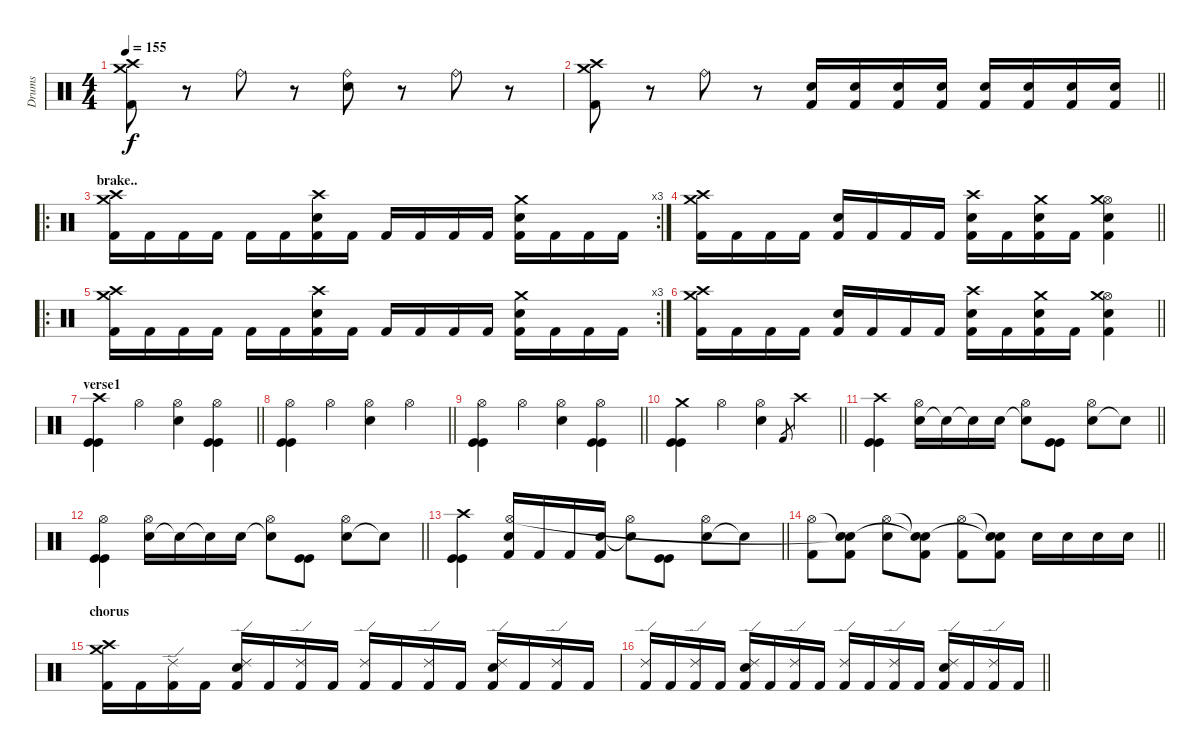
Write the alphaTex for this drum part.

\track ("Drums" "Drums") {instrument percussion}
\staff {score}
\articulation defaults
\ts (4 4)
\tempo 155
\clef neutral
\ks c
("Crash medium (hit)" "Crash high (hit)" "Kick (hit) 2").8{dy f} r.8 "Ride (bell)".8 r.8 ("Ride (bell)" "Electric Snare (hit)").8 r.8 "Ride (bell)".8 r.8 |
\barLineRight lightlight
("Crash medium (hit)" "Crash high (hit)" "Kick (hit) 2").8 r.8 "Ride (bell)".8 r.8 ("Electric Snare (hit)" "Kick (hit) 2").16 ("Electric Snare (hit)" "Kick (hit) 2").16 ("Electric Snare (hit)" "Kick (hit) 2").16 ("Electric Snare (hit)" "Kick (hit) 2").16 ("Electric Snare (hit)" "Kick (hit) 2").16 ("Electric Snare (hit)" "Kick (hit) 2").16 ("Electric Snare (hit)" "Kick (hit) 2").16 ("Electric Snare (hit)" "Kick (hit) 2").16 |
\ro
\rc 3
\section ("" "brake..")
("Crash high (hit)" "Crash medium (hit)" "Kick (hit) 2").16 "Kick (hit) 2".16 "Kick (hit) 2".16 "Kick (hit) 2".16 "Kick (hit) 2".16 "Kick (hit) 2".16 ("Crash high (hit)" "Electric Snare (hit)" "Kick (hit) 2").16 "Kick (hit) 2".16 "Kick (hit) 2".16 "Kick (hit) 2".16 "Kick (hit) 2".16 "Kick (hit) 2".16 ("Crash medium (hit)" "Electric Snare (hit)" "Kick (hit) 2").16 "Kick (hit) 2".16 "Kick (hit) 2".16 "Kick (hit) 2".16 |
\barLineRight lightlight
("Crash high (hit)" "Crash medium (hit)" "Kick (hit) 2").16 "Kick (hit) 2".16 "Kick (hit) 2".16 "Kick (hit) 2".16 ("Electric Snare (hit)" "Kick (hit) 2").16 "Kick (hit) 2".16 "Kick (hit) 2".16 "Kick (hit) 2".16 ("Crash high (hit)" "Electric Snare (hit)" "Kick (hit) 2").16 "Kick (hit) 2".16 ("Electric Snare (hit)" "Crash medium (hit)" "Kick (hit) 2").16 "Kick (hit) 2".16 ("Hi-Hat (open)" "Crash medium (hit)" "Electric Snare (hit)" "Kick (hit) 2").4 |
\ro
\rc 3
("Crash high (hit)" "Crash medium (hit)" "Kick (hit) 2").16 "Kick (hit) 2".16 "Kick (hit) 2".16 "Kick (hit) 2".16 "Kick (hit) 2".16 "Kick (hit) 2".16 ("Crash high (hit)" "Electric Snare (hit)" "Kick (hit) 2").16 "Kick (hit) 2".16 "Kick (hit) 2".16 "Kick (hit) 2".16 "Kick (hit) 2".16 "Kick (hit) 2".16 ("Crash medium (hit)" "Electric Snare (hit)" "Kick (hit) 2").16 "Kick (hit) 2".16 "Kick (hit) 2".16 "Kick (hit) 2".16 |
\barLineRight lightlight
("Crash high (hit)" "Crash medium (hit)" "Kick (hit) 2").16 "Kick (hit) 2".16 "Kick (hit) 2".16 "Kick (hit) 2".16 ("Electric Snare (hit)" "Kick (hit) 2").16 "Kick (hit) 2".16 "Kick (hit) 2".16 "Kick (hit) 2".16 ("Crash high (hit)" "Electric Snare (hit)" "Kick (hit) 2").16 "Kick (hit) 2".16 ("Electric Snare (hit)" "Crash medium (hit)" "Kick (hit) 2").16 "Kick (hit) 2".16 ("Hi-Hat (open)" "Crash medium (hit)" "Electric Snare (hit)" "Kick (hit) 2").4 |
\section ("" "verse1")
\barLineRight lightlight
("Crash high (hit)" "Kick (hit)" "Kick (hit)").4 "Hi-Hat (open)".4 ("Hi-Hat (open)" "Snare (hit) 2").4 ("Hi-Hat (open)" "Kick (hit)" "Kick (hit)").4 |
\barLineRight lightlight
("Hi-Hat (open)" "Kick (hit)" "Kick (hit)").4 "Hi-Hat (open)".4 ("Hi-Hat (open)" "Snare (hit) 2").4 "Hi-Hat (open)".4 |
\barLineRight lightlight
("Hi-Hat (open)" "Kick (hit)" "Kick (hit)").4 "Hi-Hat (open)".4 ("Hi-Hat (open)" "Snare (hit) 2").4 ("Hi-Hat (open)" "Kick (hit)" "Kick (hit)").4 |
\barLineRight lightlight
("Crash medium (hit)" "Kick (hit)" "Kick (hit)").4 "Hi-Hat (open)".4 ("Hi-Hat (open)" "Snare (hit) 2").4 "Kick (hit) 2".8{gr} "Crash high (hit)".4 |
\barLineRight lightlight
("Kick (hit)" "Kick (hit)" "Crash high (hit)").4 ("Snare (hit) 2" "Hi-Hat (open)").16 "Snare (hit)"{t}.16 "Snare (hit)"{t}.16 "Snare (hit) 2".16 ("Snare (hit)"{t} "Hi-Hat (open)").8 ("Kick (hit)" "Kick (hit)").8 ("Snare (hit) 2" "Hi-Hat (open)").8 "Snare (hit)"{t}.8 |
\barLineRight lightlight
("Kick (hit)" "Kick (hit)" "Hi-Hat (open)").4 ("Snare (hit) 2" "Hi-Hat (open)").16 "Snare (hit)"{t}.16 "Snare (hit)"{t}.16 "Snare (hit) 2".16 ("Snare (hit)"{t} "Hi-Hat (open)").8 ("Kick (hit)" "Kick (hit)").8 ("Snare (hit) 2" "Hi-Hat (open)").8 "Snare (hit)"{t}.8 |
\barLineRight lightlight
("Kick (hit)" "Kick (hit)" "Crash high (hit)").4 ("Snare (hit) 2" "Kick (hit) 2" "Hi-Hat (open)").16 "Kick (hit) 2".16 "Kick (hit) 2".16 ("Snare (hit) 2" "Kick (hit) 2").16 ("Snare (hit)"{t} "Hi-Hat (open)").8 ("Kick (hit)" "Kick (hit)").8 ("Snare (hit) 2" "Hi-Hat (open)").8 "Snare (hit)"{t}.8 |
\barLineRight lightlight
("Hi-Hat (open)" "Kick (hit) 2").8 ("Snare (hit)"{t} "Kick (hit) 2" "Snare (hit)"{t}).8 ("Hi-Hat (open)" "Snare (hit) 2").8 ("Snare (hit)"{t} "Kick (hit) 2" "Snare (hit)"{t}).8 ("Hi-Hat (open)" "Kick (hit) 2").8 ("Snare (hit)"{t} "Kick (hit) 2" "Snare (hit)"{t}).8 "Electric Snare (hit)".16 "Electric Snare (hit)".16 "Electric Snare (hit)".16 "Electric Snare (hit)".16 |
\section ("" "chorus")
("Crash high (hit)" "Crash medium (hit)" "Kick (hit) 2").16 "Kick (hit) 2".16 ("Ride (edge) 2" "Kick (hit) 2").16 "Kick (hit) 2".16 ("Ride (edge) 2" "Electric Snare (hit)" "Kick (hit) 2").16 "Kick (hit) 2".16 ("Ride (edge) 2" "Kick (hit) 2").16 "Kick (hit) 2".16 ("Ride (edge) 2" "Kick (hit) 2").16 "Kick (hit) 2".16 ("Ride (edge) 2" "Kick (hit) 2").16 "Kick (hit) 2".16 ("Ride (edge) 2" "Electric Snare (hit)" "Kick (hit) 2").16 "Kick (hit) 2".16 ("Ride (edge) 2" "Kick (hit) 2").16 "Kick (hit) 2".16 |
\barLineRight lightlight
("Ride (edge) 2" "Kick (hit) 2").16 "Kick (hit) 2".16 ("Ride (edge) 2" "Kick (hit) 2").16 "Kick (hit) 2".16 ("Ride (edge) 2" "Electric Snare (hit)" "Kick (hit) 2").16 "Kick (hit) 2".16 ("Ride (edge) 2" "Kick (hit) 2").16 "Kick (hit) 2".16 ("Ride (edge) 2" "Kick (hit) 2").16 "Kick (hit) 2".16 ("Ride (edge) 2" "Kick (hit) 2").16 "Kick (hit) 2".16 ("Ride (edge) 2" "Electric Snare (hit)" "Kick (hit) 2").16 "Kick (hit) 2".16 ("Ride (edge) 2" "Kick (hit) 2").16 "Kick (hit) 2".16
